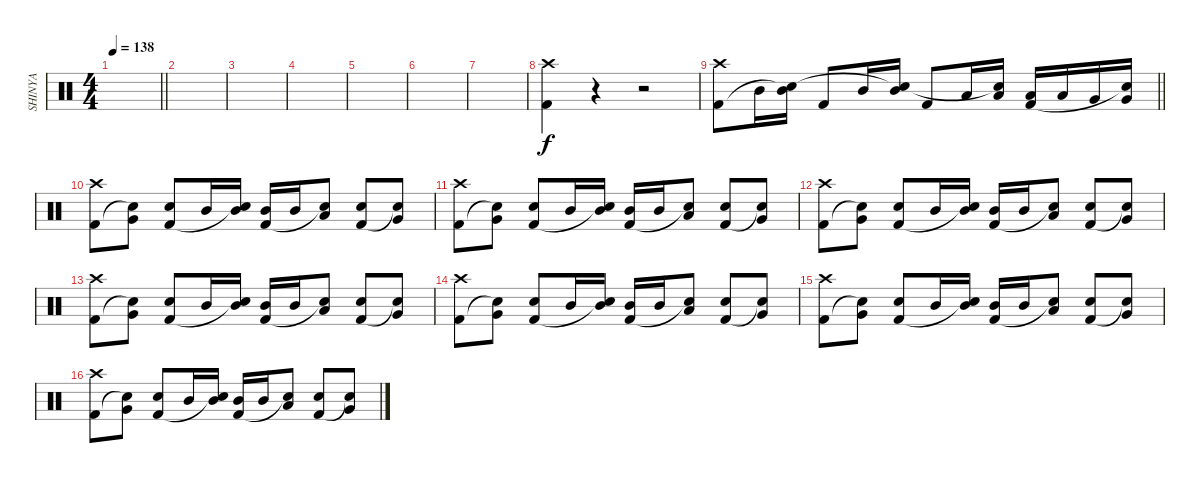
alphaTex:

\track ("SHINYA" "SHINYA") {instrument percussion}
\staff {score}
\articulation defaults
\ts (4 4)
\tempo 138
\clef neutral
\barLineRight lightlight
\ks c
|
|
|
|
|
|
|
("Crash high (hit)" "Kick (hit) 2").4 r.4 r.2 |
\barLineRight lightlight
("Crash high (hit)" "Kick (hit) 2").8 "Mid Tom (hit)".16 ("Mid Tom (hit)" "Snare (hit)"{t}).16 "Kick (hit) 2".8 "Mid Tom (hit)".16 ("Mid Tom (hit)" "Snare (hit)"{t}).16 "Kick (hit) 2".8 "Low Tom (hit)".16 ("Low Tom (hit)" "Snare (hit)"{t}).16 ("Low Tom (hit)" "Kick (hit) 2").16 "Low Tom (hit)".16 "Very Low Tom (hit)".16 ("Very Low Tom (hit)" "Snare (hit)"{t}).16 |
("Crash high (hit)" "Kick (hit) 2").8 ("Very Low Tom (hit)" "Snare (hit)"{t}).8 ("Electric Snare (hit)" "Kick (hit) 2").8 "Mid Tom (hit)".16 ("Mid Tom (hit)" "Snare (hit)"{t}).16 ("Mid Tom (hit)" "Kick (hit) 2").16 "Mid Tom (hit)".16 ("Low Tom (hit)" "Snare (hit)"{t}).8 ("Electric Snare (hit)" "Kick (hit) 2").8 ("Very Low Tom (hit)" "Snare (hit)"{t}).8 |
("Crash high (hit)" "Kick (hit) 2").8 ("Very Low Tom (hit)" "Snare (hit)"{t}).8 ("Electric Snare (hit)" "Kick (hit) 2").8 "Mid Tom (hit)".16 ("Mid Tom (hit)" "Snare (hit)"{t}).16 ("Mid Tom (hit)" "Kick (hit) 2").16 "Mid Tom (hit)".16 ("Low Tom (hit)" "Snare (hit)"{t}).8 ("Electric Snare (hit)" "Kick (hit) 2").8 ("Very Low Tom (hit)" "Snare (hit)"{t}).8 |
("Crash high (hit)" "Kick (hit) 2").8 ("Very Low Tom (hit)" "Snare (hit)"{t}).8 ("Electric Snare (hit)" "Kick (hit) 2").8 "Mid Tom (hit)".16 ("Mid Tom (hit)" "Snare (hit)"{t}).16 ("Mid Tom (hit)" "Kick (hit) 2").16 "Mid Tom (hit)".16 ("Low Tom (hit)" "Snare (hit)"{t}).8 ("Electric Snare (hit)" "Kick (hit) 2").8 ("Very Low Tom (hit)" "Snare (hit)"{t}).8 |
("Crash high (hit)" "Kick (hit) 2").8 ("Very Low Tom (hit)" "Snare (hit)"{t}).8 ("Electric Snare (hit)" "Kick (hit) 2").8 "Mid Tom (hit)".16 ("Mid Tom (hit)" "Snare (hit)"{t}).16 ("Mid Tom (hit)" "Kick (hit) 2").16 "Mid Tom (hit)".16 ("Low Tom (hit)" "Snare (hit)"{t}).8 ("Electric Snare (hit)" "Kick (hit) 2").8 ("Very Low Tom (hit)" "Snare (hit)"{t}).8 |
("Crash high (hit)" "Kick (hit) 2").8 ("Very Low Tom (hit)" "Snare (hit)"{t}).8 ("Electric Snare (hit)" "Kick (hit) 2").8 "Mid Tom (hit)".16 ("Mid Tom (hit)" "Snare (hit)"{t}).16 ("Mid Tom (hit)" "Kick (hit) 2").16 "Mid Tom (hit)".16 ("Low Tom (hit)" "Snare (hit)"{t}).8 ("Electric Snare (hit)" "Kick (hit) 2").8 ("Very Low Tom (hit)" "Snare (hit)"{t}).8 |
("Crash high (hit)" "Kick (hit) 2").8 ("Very Low Tom (hit)" "Snare (hit)"{t}).8 ("Electric Snare (hit)" "Kick (hit) 2").8 "Mid Tom (hit)".16 ("Mid Tom (hit)" "Snare (hit)"{t}).16 ("Mid Tom (hit)" "Kick (hit) 2").16 "Mid Tom (hit)".16 ("Low Tom (hit)" "Snare (hit)"{t}).8 ("Electric Snare (hit)" "Kick (hit) 2").8 ("Very Low Tom (hit)" "Snare (hit)"{t}).8 |
("Crash high (hit)" "Kick (hit) 2").8 ("Very Low Tom (hit)" "Snare (hit)"{t}).8 ("Electric Snare (hit)" "Kick (hit) 2").8 "Mid Tom (hit)".16 ("Mid Tom (hit)" "Snare (hit)"{t}).16 ("Mid Tom (hit)" "Kick (hit) 2").16 "Mid Tom (hit)".16 ("Low Tom (hit)" "Snare (hit)"{t}).8 ("Electric Snare (hit)" "Kick (hit) 2").8 ("Very Low Tom (hit)" "Snare (hit)"{t}).8
